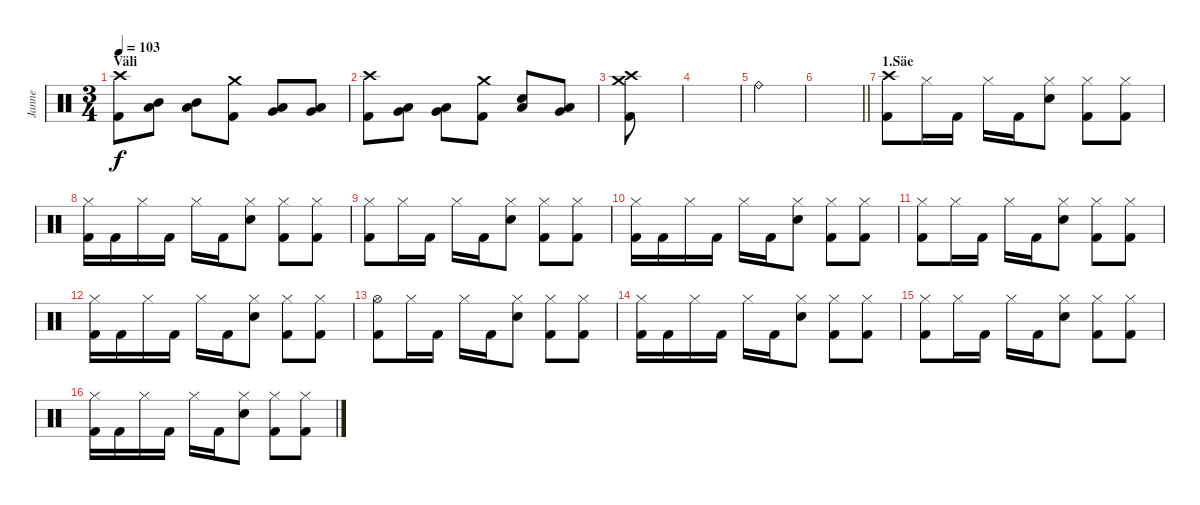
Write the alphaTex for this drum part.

\track ("Janne" "Janne") {instrument percussion}
\staff {score}
\articulation defaults
\ts (3 4)
\section ("" "Väli")
\tempo 103
\clef neutral
\ks c
("Crash high (hit)" "Kick (hit) 2").8{dy f} ("Mid Tom (hit)" "Low Tom (hit)").8 ("Mid Tom (hit)" "Low Tom (hit)").8 ("Crash medium (hit)" "Kick (hit) 2").8 ("Low Tom (hit)" "Very Low Tom (hit)").8 ("Low Tom (hit)" "Very Low Tom (hit)").8 |
("Crash high (hit)" "Kick (hit) 2").8 ("Very Low Tom (hit)" "Low Floor Tom (hit)").8 ("Very Low Tom (hit)" "Low Floor Tom (hit)").8 ("Crash medium (hit)" "Kick (hit) 2").8 ("Electric Snare (hit)" "Low Floor Tom (hit)").8 ("Low Tom (hit)" "Very Low Tom (hit)").8 |
("Crash high (hit)" "Crash medium (hit)" "Kick (hit) 2").8 |
|
"Ride (bell)".4 |
\barLineRight lightlight
|
\section ("" "1.Säe")
("Crash high (hit)" "Kick (hit) 2").8 "Hi-Hat (closed)".16 "Kick (hit) 2".16 "Hi-Hat (closed)".16 "Kick (hit) 2".16 ("Hi-Hat (closed)" "Electric Snare (hit)").8 ("Hi-Hat (closed)" "Kick (hit) 2").8 ("Hi-Hat (closed)" "Kick (hit) 2").8 |
("Hi-Hat (closed)" "Kick (hit) 2").16 "Kick (hit) 2".16 "Hi-Hat (closed)".16 "Kick (hit) 2".16 "Hi-Hat (closed)".16 "Kick (hit) 2".16 ("Hi-Hat (closed)" "Electric Snare (hit)").8 ("Hi-Hat (closed)" "Kick (hit) 2").8 ("Hi-Hat (closed)" "Kick (hit) 2").8 |
("Hi-Hat (closed)" "Kick (hit) 2").8 "Hi-Hat (closed)".16 "Kick (hit) 2".16 "Hi-Hat (closed)".16 "Kick (hit) 2".16 ("Hi-Hat (closed)" "Electric Snare (hit)").8 ("Hi-Hat (closed)" "Kick (hit) 2").8 ("Hi-Hat (closed)" "Kick (hit) 2").8 |
("Hi-Hat (closed)" "Kick (hit) 2").16 "Kick (hit) 2".16 "Hi-Hat (closed)".16 "Kick (hit) 2".16 "Hi-Hat (closed)".16 "Kick (hit) 2".16 ("Hi-Hat (closed)" "Electric Snare (hit)").8 ("Hi-Hat (closed)" "Kick (hit) 2").8 ("Hi-Hat (closed)" "Kick (hit) 2").8 |
("Hi-Hat (closed)" "Kick (hit) 2").8 "Hi-Hat (closed)".16 "Kick (hit) 2".16 "Hi-Hat (closed)".16 "Kick (hit) 2".16 ("Hi-Hat (closed)" "Electric Snare (hit)").8 ("Hi-Hat (closed)" "Kick (hit) 2").8 ("Hi-Hat (closed)" "Kick (hit) 2").8 |
("Hi-Hat (closed)" "Kick (hit) 2").16 "Kick (hit) 2".16 "Hi-Hat (closed)".16 "Kick (hit) 2".16 "Hi-Hat (closed)".16 "Kick (hit) 2".16 ("Hi-Hat (closed)" "Electric Snare (hit)").8 ("Hi-Hat (closed)" "Kick (hit) 2").8 ("Hi-Hat (closed)" "Kick (hit) 2").8 |
("Hi-Hat (open)" "Kick (hit) 2").8 "Hi-Hat (closed)".16 "Kick (hit) 2".16 "Hi-Hat (closed)".16 "Kick (hit) 2".16 ("Hi-Hat (closed)" "Electric Snare (hit)").8 ("Hi-Hat (closed)" "Kick (hit) 2").8 ("Hi-Hat (closed)" "Kick (hit) 2").8 |
("Hi-Hat (closed)" "Kick (hit) 2").16 "Kick (hit) 2".16 "Hi-Hat (closed)".16 "Kick (hit) 2".16 "Hi-Hat (closed)".16 "Kick (hit) 2".16 ("Hi-Hat (closed)" "Electric Snare (hit)").8 ("Hi-Hat (closed)" "Kick (hit) 2").8 ("Hi-Hat (closed)" "Kick (hit) 2").8 |
("Hi-Hat (closed)" "Kick (hit) 2").8 "Hi-Hat (closed)".16 "Kick (hit) 2".16 "Hi-Hat (closed)".16 "Kick (hit) 2".16 ("Hi-Hat (closed)" "Electric Snare (hit)").8 ("Hi-Hat (closed)" "Kick (hit) 2").8 ("Hi-Hat (closed)" "Kick (hit) 2").8 |
("Hi-Hat (closed)" "Kick (hit) 2").16 "Kick (hit) 2".16 "Hi-Hat (closed)".16 "Kick (hit) 2".16 "Hi-Hat (closed)".16 "Kick (hit) 2".16 ("Hi-Hat (closed)" "Electric Snare (hit)").8 ("Hi-Hat (closed)" "Kick (hit) 2").8 ("Hi-Hat (closed)" "Kick (hit) 2").8
